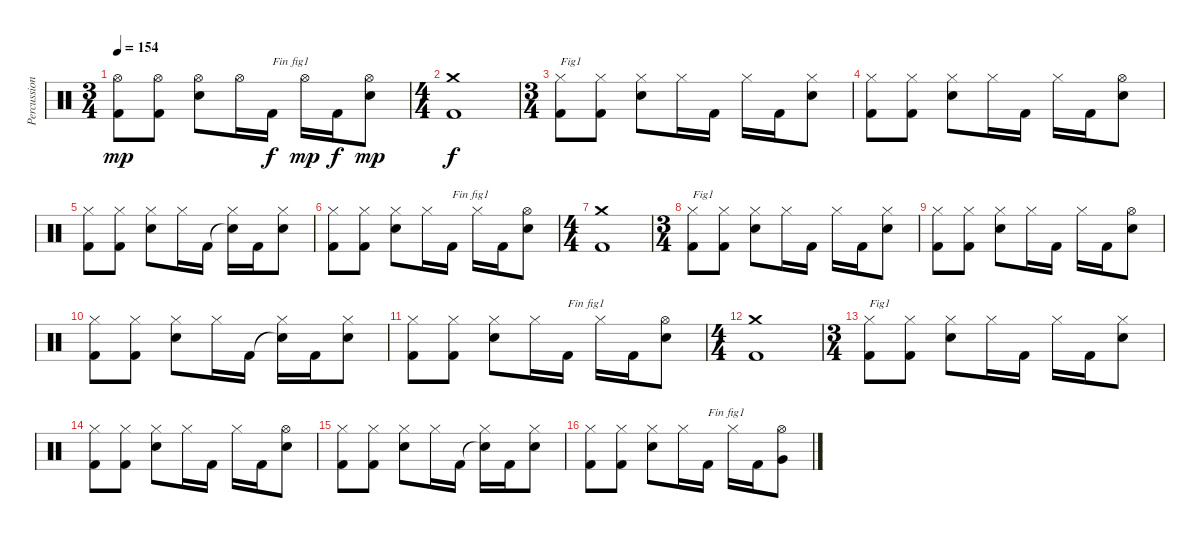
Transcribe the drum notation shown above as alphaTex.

\track ("Percussions" "Percussion") {instrument percussion}
\staff {score}
\articulation defaults
\ts (3 4)
\tempo 154
\clef neutral
\ks c
("Kick (hit) 2" "Hi-Hat (open)").8{dy mp} ("Kick (hit) 2" "Hi-Hat (open)").8 ("Electric Snare (hit)" "Hi-Hat (open)").8 "Hi-Hat (open)".16 "Kick (hit) 2".16{txt "Fin fig1" dy f} "Hi-Hat (open)".16{dy mp} "Kick (hit) 2".16{dy f} ("Electric Snare (hit)" "Hi-Hat (open)").8{dy mp} |
\ts (4 4)
("Kick (hit) 2" "Crash medium (hit)").1{dy f} |
\ts (3 4)
("Kick (hit) 2" "Hi-Hat (closed)").8{txt "Fig1"} ("Kick (hit) 2" "Hi-Hat (closed)").8 ("Electric Snare (hit)" "Hi-Hat (closed)").8 "Hi-Hat (closed)".16 "Kick (hit) 2".16 "Hi-Hat (closed)".16 "Kick (hit) 2".16 ("Electric Snare (hit)" "Hi-Hat (closed)").8 |
("Kick (hit) 2" "Hi-Hat (closed)").8 ("Kick (hit) 2" "Hi-Hat (closed)").8 ("Electric Snare (hit)" "Hi-Hat (closed)").8 "Hi-Hat (closed)".16 "Kick (hit) 2".16 "Hi-Hat (closed)".16 "Kick (hit) 2".16 ("Electric Snare (hit)" "Hi-Hat (open)").8 |
("Kick (hit) 2" "Hi-Hat (closed)").8 ("Kick (hit) 2" "Hi-Hat (closed)").8 ("Electric Snare (hit)" "Hi-Hat (closed)").8 "Hi-Hat (closed)".16 "Kick (hit) 2".16 ("Snare (hit)"{t} "Hi-Hat (closed)").16 "Kick (hit) 2".16 ("Electric Snare (hit)" "Hi-Hat (closed)").8 |
("Kick (hit) 2" "Hi-Hat (closed)").8 ("Kick (hit) 2" "Hi-Hat (closed)").8 ("Electric Snare (hit)" "Hi-Hat (closed)").8 "Hi-Hat (closed)".16 "Kick (hit) 2".16{txt "Fin fig1"} "Hi-Hat (closed)".16 "Kick (hit) 2".16 ("Electric Snare (hit)" "Hi-Hat (open)").8 |
\ts (4 4)
("Kick (hit) 2" "Crash medium (hit)").1 |
\ts (3 4)
("Kick (hit) 2" "Hi-Hat (closed)").8{txt "Fig1"} ("Kick (hit) 2" "Hi-Hat (closed)").8 ("Electric Snare (hit)" "Hi-Hat (closed)").8 "Hi-Hat (closed)".16 "Kick (hit) 2".16 "Hi-Hat (closed)".16 "Kick (hit) 2".16 ("Electric Snare (hit)" "Hi-Hat (closed)").8 |
("Kick (hit) 2" "Hi-Hat (closed)").8 ("Kick (hit) 2" "Hi-Hat (closed)").8 ("Electric Snare (hit)" "Hi-Hat (closed)").8 "Hi-Hat (closed)".16 "Kick (hit) 2".16 "Hi-Hat (closed)".16 "Kick (hit) 2".16 ("Electric Snare (hit)" "Hi-Hat (open)").8 |
("Kick (hit) 2" "Hi-Hat (closed)").8 ("Kick (hit) 2" "Hi-Hat (closed)").8 ("Electric Snare (hit)" "Hi-Hat (closed)").8 "Hi-Hat (closed)".16 "Kick (hit) 2".16 ("Snare (hit)"{t} "Hi-Hat (closed)").16 "Kick (hit) 2".16 ("Electric Snare (hit)" "Hi-Hat (closed)").8 |
("Kick (hit) 2" "Hi-Hat (closed)").8 ("Kick (hit) 2" "Hi-Hat (closed)").8 ("Electric Snare (hit)" "Hi-Hat (closed)").8 "Hi-Hat (closed)".16 "Kick (hit) 2".16{txt "Fin fig1"} "Hi-Hat (closed)".16 "Kick (hit) 2".16 ("Electric Snare (hit)" "Hi-Hat (open)").8 |
\ts (4 4)
("Kick (hit) 2" "Crash medium (hit)").1 |
\ts (3 4)
("Kick (hit) 2" "Hi-Hat (closed)").8{txt "Fig1"} ("Kick (hit) 2" "Hi-Hat (closed)").8 ("Electric Snare (hit)" "Hi-Hat (closed)").8 "Hi-Hat (closed)".16 "Kick (hit) 2".16 "Hi-Hat (closed)".16 "Kick (hit) 2".16 ("Electric Snare (hit)" "Hi-Hat (closed)").8 |
("Kick (hit) 2" "Hi-Hat (closed)").8 ("Kick (hit) 2" "Hi-Hat (closed)").8 ("Electric Snare (hit)" "Hi-Hat (closed)").8 "Hi-Hat (closed)".16 "Kick (hit) 2".16 "Hi-Hat (closed)".16 "Kick (hit) 2".16 ("Electric Snare (hit)" "Hi-Hat (open)").8 |
("Kick (hit) 2" "Hi-Hat (closed)").8 ("Kick (hit) 2" "Hi-Hat (closed)").8 ("Electric Snare (hit)" "Hi-Hat (closed)").8 "Hi-Hat (closed)".16 "Kick (hit) 2".16 ("Snare (hit)"{t} "Hi-Hat (closed)").16 "Kick (hit) 2".16 ("Electric Snare (hit)" "Hi-Hat (closed)").8 |
("Kick (hit) 2" "Hi-Hat (closed)").8 ("Kick (hit) 2" "Hi-Hat (closed)").8 ("Electric Snare (hit)" "Hi-Hat (closed)").8 "Hi-Hat (closed)".16 "Kick (hit) 2".16{txt "Fin fig1"} "Hi-Hat (closed)".16 "Kick (hit) 2".16 ("Very Low Tom (hit)" "Hi-Hat (open)").8
